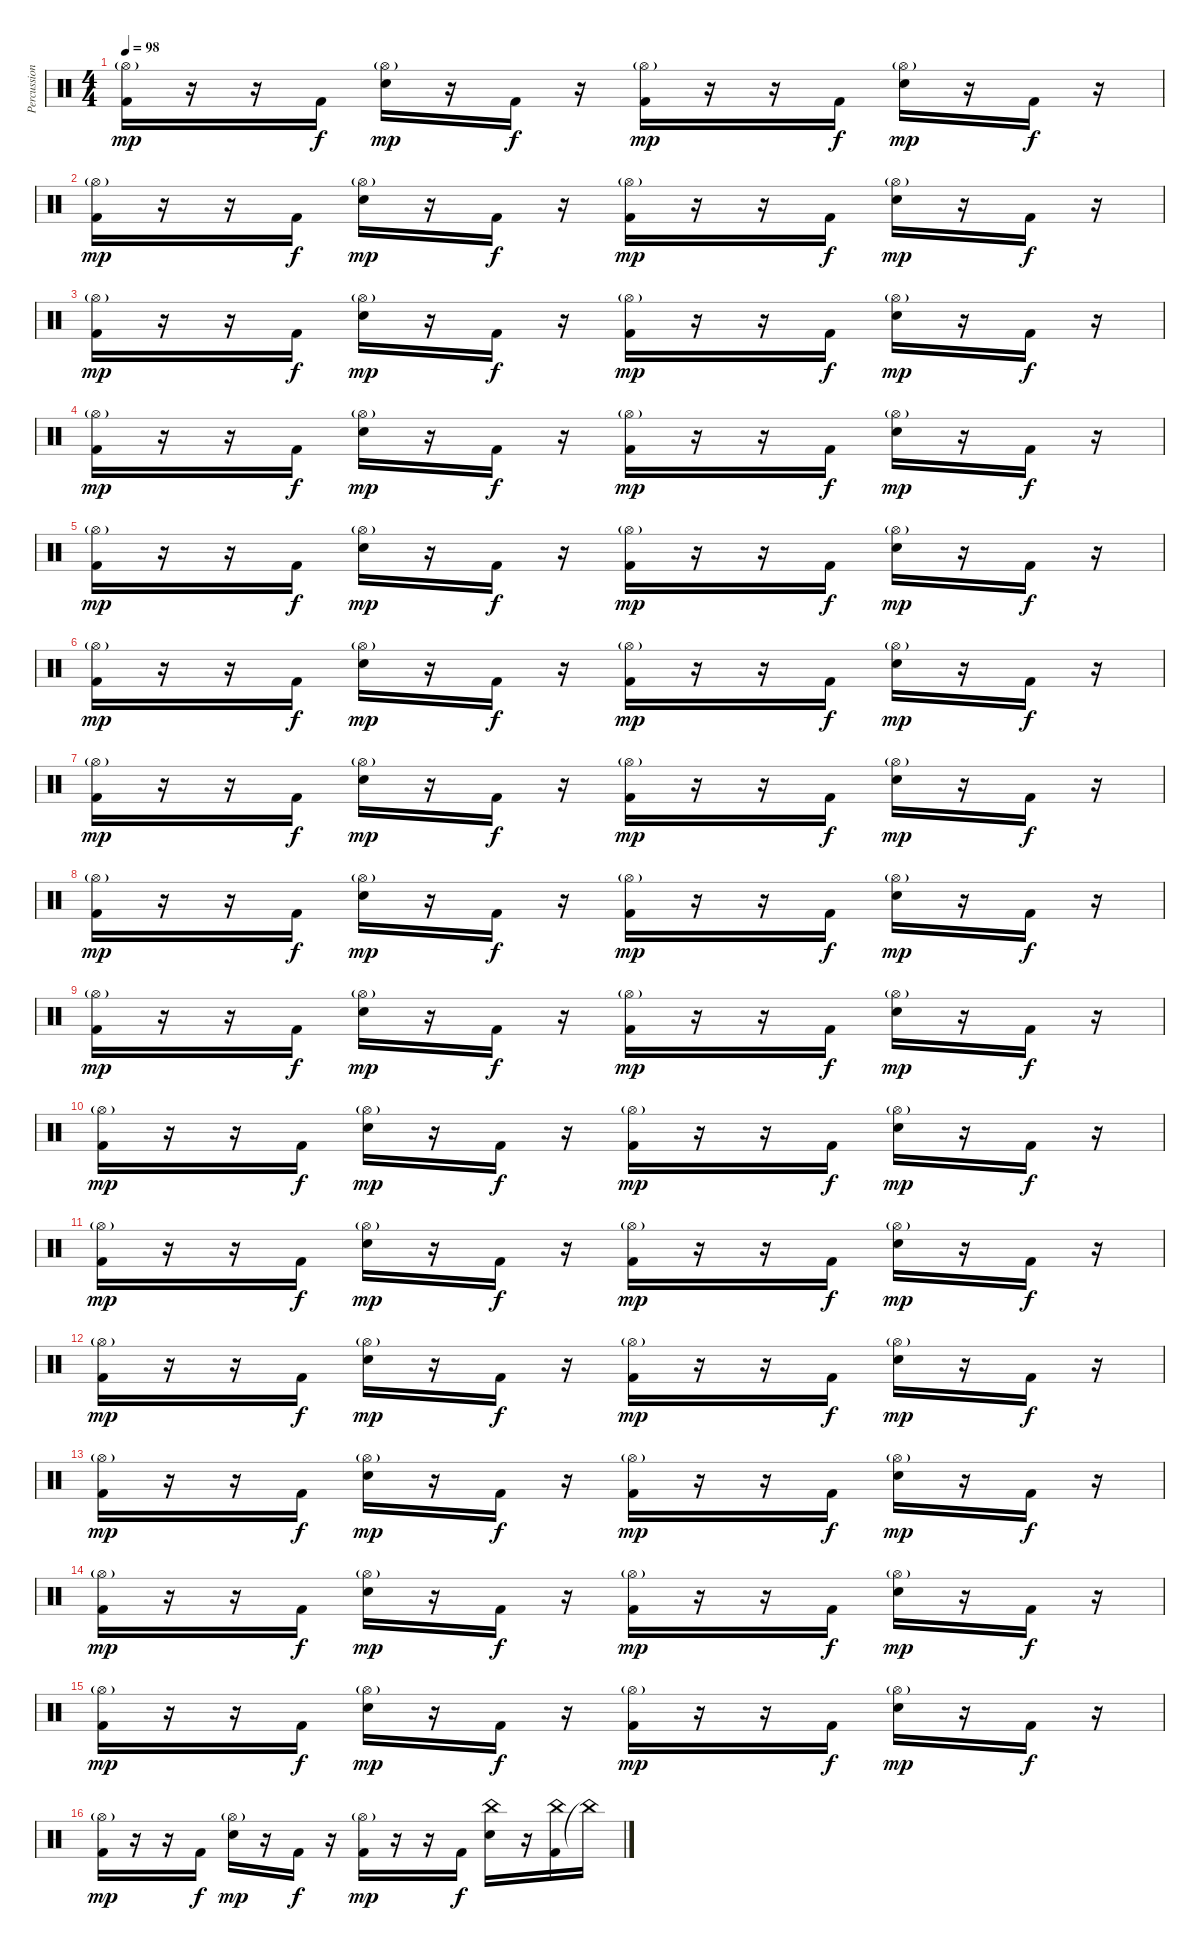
\track ("Percussions" "Percussion") {instrument percussion}
\staff {score}
\articulation defaults
\ts (4 4)
\tempo 98
\clef neutral
\ks c
("Hi-Hat (open)"{g} "Kick (hit) 2").16{dy mp} r.16 r.16 "Kick (hit) 2".16{dy f} ("Hi-Hat (open)"{g} "Snare (hit) 2").16{dy mp} r.16 "Kick (hit) 2".16{dy f} r.16 ("Hi-Hat (open)"{g} "Kick (hit) 2").16{dy mp} r.16 r.16 "Kick (hit) 2".16{dy f} ("Hi-Hat (open)"{g} "Snare (hit) 2").16{dy mp} r.16 "Kick (hit) 2".16{dy f} r.16 |
("Hi-Hat (open)"{g} "Kick (hit) 2").16{dy mp} r.16 r.16 "Kick (hit) 2".16{dy f} ("Hi-Hat (open)"{g} "Snare (hit) 2").16{dy mp} r.16 "Kick (hit) 2".16{dy f} r.16 ("Hi-Hat (open)"{g} "Kick (hit) 2").16{dy mp} r.16 r.16 "Kick (hit) 2".16{dy f} ("Hi-Hat (open)"{g} "Snare (hit) 2").16{dy mp} r.16 "Kick (hit) 2".16{dy f} r.16 |
("Hi-Hat (open)"{g} "Kick (hit) 2").16{dy mp} r.16 r.16 "Kick (hit) 2".16{dy f} ("Hi-Hat (open)"{g} "Snare (hit) 2").16{dy mp} r.16 "Kick (hit) 2".16{dy f} r.16 ("Hi-Hat (open)"{g} "Kick (hit) 2").16{dy mp} r.16 r.16 "Kick (hit) 2".16{dy f} ("Hi-Hat (open)"{g} "Snare (hit) 2").16{dy mp} r.16 "Kick (hit) 2".16{dy f} r.16 |
("Hi-Hat (open)"{g} "Kick (hit) 2").16{dy mp} r.16 r.16 "Kick (hit) 2".16{dy f} ("Hi-Hat (open)"{g} "Snare (hit) 2").16{dy mp} r.16 "Kick (hit) 2".16{dy f} r.16 ("Hi-Hat (open)"{g} "Kick (hit) 2").16{dy mp} r.16 r.16 "Kick (hit) 2".16{dy f} ("Hi-Hat (open)"{g} "Snare (hit) 2").16{dy mp} r.16 "Kick (hit) 2".16{dy f} r.16 |
("Hi-Hat (open)"{g} "Kick (hit) 2").16{dy mp} r.16 r.16 "Kick (hit) 2".16{dy f} ("Hi-Hat (open)"{g} "Snare (hit) 2").16{dy mp} r.16 "Kick (hit) 2".16{dy f} r.16 ("Hi-Hat (open)"{g} "Kick (hit) 2").16{dy mp} r.16 r.16 "Kick (hit) 2".16{dy f} ("Hi-Hat (open)"{g} "Snare (hit) 2").16{dy mp} r.16 "Kick (hit) 2".16{dy f} r.16 |
("Hi-Hat (open)"{g} "Kick (hit) 2").16{dy mp} r.16 r.16 "Kick (hit) 2".16{dy f} ("Hi-Hat (open)"{g} "Snare (hit) 2").16{dy mp} r.16 "Kick (hit) 2".16{dy f} r.16 ("Hi-Hat (open)"{g} "Kick (hit) 2").16{dy mp} r.16 r.16 "Kick (hit) 2".16{dy f} ("Hi-Hat (open)"{g} "Snare (hit) 2").16{dy mp} r.16 "Kick (hit) 2".16{dy f} r.16 |
("Hi-Hat (open)"{g} "Kick (hit) 2").16{dy mp} r.16 r.16 "Kick (hit) 2".16{dy f} ("Hi-Hat (open)"{g} "Snare (hit) 2").16{dy mp} r.16 "Kick (hit) 2".16{dy f} r.16 ("Hi-Hat (open)"{g} "Kick (hit) 2").16{dy mp} r.16 r.16 "Kick (hit) 2".16{dy f} ("Hi-Hat (open)"{g} "Snare (hit) 2").16{dy mp} r.16 "Kick (hit) 2".16{dy f} r.16 |
("Hi-Hat (open)"{g} "Kick (hit) 2").16{dy mp} r.16 r.16 "Kick (hit) 2".16{dy f} ("Hi-Hat (open)"{g} "Snare (hit) 2").16{dy mp} r.16 "Kick (hit) 2".16{dy f} r.16 ("Hi-Hat (open)"{g} "Kick (hit) 2").16{dy mp} r.16 r.16 "Kick (hit) 2".16{dy f} ("Hi-Hat (open)"{g} "Snare (hit) 2").16{dy mp} r.16 "Kick (hit) 2".16{dy f} r.16 |
("Hi-Hat (open)"{g} "Kick (hit) 2").16{dy mp} r.16 r.16 "Kick (hit) 2".16{dy f} ("Hi-Hat (open)"{g} "Snare (hit) 2").16{dy mp} r.16 "Kick (hit) 2".16{dy f} r.16 ("Hi-Hat (open)"{g} "Kick (hit) 2").16{dy mp} r.16 r.16 "Kick (hit) 2".16{dy f} ("Hi-Hat (open)"{g} "Snare (hit) 2").16{dy mp} r.16 "Kick (hit) 2".16{dy f} r.16 |
("Hi-Hat (open)"{g} "Kick (hit) 2").16{dy mp} r.16 r.16 "Kick (hit) 2".16{dy f} ("Hi-Hat (open)"{g} "Snare (hit) 2").16{dy mp} r.16 "Kick (hit) 2".16{dy f} r.16 ("Hi-Hat (open)"{g} "Kick (hit) 2").16{dy mp} r.16 r.16 "Kick (hit) 2".16{dy f} ("Hi-Hat (open)"{g} "Snare (hit) 2").16{dy mp} r.16 "Kick (hit) 2".16{dy f} r.16 |
("Hi-Hat (open)"{g} "Kick (hit) 2").16{dy mp} r.16 r.16 "Kick (hit) 2".16{dy f} ("Hi-Hat (open)"{g} "Snare (hit) 2").16{dy mp} r.16 "Kick (hit) 2".16{dy f} r.16 ("Hi-Hat (open)"{g} "Kick (hit) 2").16{dy mp} r.16 r.16 "Kick (hit) 2".16{dy f} ("Hi-Hat (open)"{g} "Snare (hit) 2").16{dy mp} r.16 "Kick (hit) 2".16{dy f} r.16 |
("Hi-Hat (open)"{g} "Kick (hit) 2").16{dy mp} r.16 r.16 "Kick (hit) 2".16{dy f} ("Hi-Hat (open)"{g} "Snare (hit) 2").16{dy mp} r.16 "Kick (hit) 2".16{dy f} r.16 ("Hi-Hat (open)"{g} "Kick (hit) 2").16{dy mp} r.16 r.16 "Kick (hit) 2".16{dy f} ("Hi-Hat (open)"{g} "Snare (hit) 2").16{dy mp} r.16 "Kick (hit) 2".16{dy f} r.16 |
("Hi-Hat (open)"{g} "Kick (hit) 2").16{dy mp} r.16 r.16 "Kick (hit) 2".16{dy f} ("Hi-Hat (open)"{g} "Snare (hit) 2").16{dy mp} r.16 "Kick (hit) 2".16{dy f} r.16 ("Hi-Hat (open)"{g} "Kick (hit) 2").16{dy mp} r.16 r.16 "Kick (hit) 2".16{dy f} ("Hi-Hat (open)"{g} "Snare (hit) 2").16{dy mp} r.16 "Kick (hit) 2".16{dy f} r.16 |
("Hi-Hat (open)"{g} "Kick (hit) 2").16{dy mp} r.16 r.16 "Kick (hit) 2".16{dy f} ("Hi-Hat (open)"{g} "Snare (hit) 2").16{dy mp} r.16 "Kick (hit) 2".16{dy f} r.16 ("Hi-Hat (open)"{g} "Kick (hit) 2").16{dy mp} r.16 r.16 "Kick (hit) 2".16{dy f} ("Hi-Hat (open)"{g} "Snare (hit) 2").16{dy mp} r.16 "Kick (hit) 2".16{dy f} r.16 |
("Hi-Hat (open)"{g} "Kick (hit) 2").16{dy mp} r.16 r.16 "Kick (hit) 2".16{dy f} ("Hi-Hat (open)"{g} "Snare (hit) 2").16{dy mp} r.16 "Kick (hit) 2".16{dy f} r.16 ("Hi-Hat (open)"{g} "Kick (hit) 2").16{dy mp} r.16 r.16 "Kick (hit) 2".16{dy f} ("Hi-Hat (open)"{g} "Snare (hit) 2").16{dy mp} r.16 "Kick (hit) 2".16{dy f} r.16 |
("Hi-Hat (open)"{g} "Kick (hit) 2").16{dy mp} r.16 r.16 "Kick (hit) 2".16{dy f} ("Hi-Hat (open)"{g} "Snare (hit) 2").16{dy mp} r.16 "Kick (hit) 2".16{dy f} r.16 ("Hi-Hat (open)"{g} "Kick (hit) 2").16{dy mp} r.16 r.16 "Kick (hit) 2".16{dy f} ("China (hit)" "Snare (hit) 2").16 r.16 ("Kick (hit) 2" "China (hit)").16 "China (hit)"{t}.16
